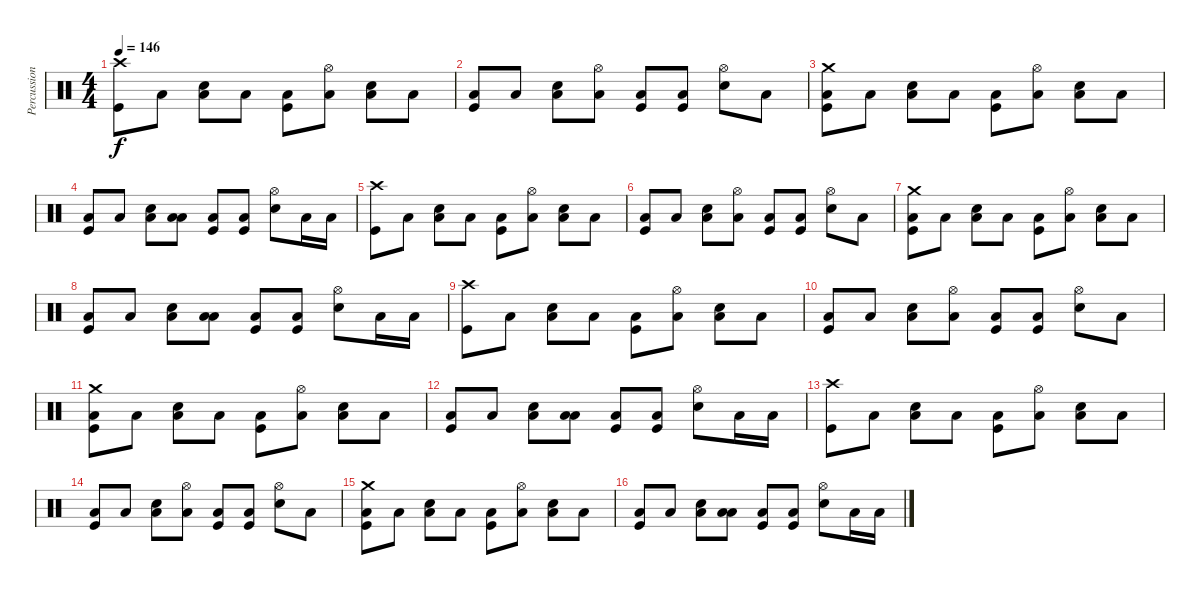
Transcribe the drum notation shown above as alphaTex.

\track ("Percussion" "Percussion") {instrument percussion}
\staff {score}
\articulation defaults
\ts (4 4)
\tempo 146
\clef neutral
\ks c
("Crash high (hit)" "Kick (hit)").8{dy f} "Low Floor Tom (hit)".8 ("Low Floor Tom (hit)" "Snare (hit) 2").8 "Low Floor Tom (hit)".8 ("Low Floor Tom (hit)" "Kick (hit)").8 ("Hi-Hat (open)" "Low Floor Tom (hit)").8 ("Low Floor Tom (hit)" "Snare (hit) 2").8 "Low Floor Tom (hit)".8 |
("Low Floor Tom (hit)" "Kick (hit)").8 "Low Floor Tom (hit)".8 ("Low Floor Tom (hit)" "Snare (hit) 2").8 ("Hi-Hat (open)" "Low Floor Tom (hit)").8 ("Low Floor Tom (hit)" "Kick (hit)").8 ("Low Floor Tom (hit)" "Kick (hit)").8 ("Hi-Hat (open)" "Snare (hit) 2").8 "Low Floor Tom (hit)".8 |
("Crash medium (hit)" "Low Floor Tom (hit)" "Kick (hit)").8 "Low Floor Tom (hit)".8 ("Low Floor Tom (hit)" "Snare (hit) 2").8 "Low Floor Tom (hit)".8 ("Low Floor Tom (hit)" "Kick (hit)").8 ("Hi-Hat (open)" "Low Floor Tom (hit)").8 ("Low Floor Tom (hit)" "Snare (hit) 2").8 "Low Floor Tom (hit)".8 |
("Low Floor Tom (hit)" "Kick (hit)").8 "Low Floor Tom (hit)".8 ("Low Floor Tom (hit)" "Snare (hit) 2").8 ("Low Tom (hit)" "Low Floor Tom (hit)").8 ("Low Floor Tom (hit)" "Kick (hit)").8 ("Low Floor Tom (hit)" "Kick (hit)").8 ("Hi-Hat (open)" "Snare (hit) 2").8 "Low Floor Tom (hit)".16 "Low Floor Tom (hit)".16 |
("Crash high (hit)" "Kick (hit)").8 "Low Floor Tom (hit)".8 ("Low Floor Tom (hit)" "Snare (hit) 2").8 "Low Floor Tom (hit)".8 ("Low Floor Tom (hit)" "Kick (hit)").8 ("Hi-Hat (open)" "Low Floor Tom (hit)").8 ("Low Floor Tom (hit)" "Snare (hit) 2").8 "Low Floor Tom (hit)".8 |
("Low Floor Tom (hit)" "Kick (hit)").8 "Low Floor Tom (hit)".8 ("Low Floor Tom (hit)" "Snare (hit) 2").8 ("Hi-Hat (open)" "Low Floor Tom (hit)").8 ("Low Floor Tom (hit)" "Kick (hit)").8 ("Low Floor Tom (hit)" "Kick (hit)").8 ("Hi-Hat (open)" "Snare (hit) 2").8 "Low Floor Tom (hit)".8 |
("Crash medium (hit)" "Low Floor Tom (hit)" "Kick (hit)").8 "Low Floor Tom (hit)".8 ("Low Floor Tom (hit)" "Snare (hit) 2").8 "Low Floor Tom (hit)".8 ("Low Floor Tom (hit)" "Kick (hit)").8 ("Hi-Hat (open)" "Low Floor Tom (hit)").8 ("Low Floor Tom (hit)" "Snare (hit) 2").8 "Low Floor Tom (hit)".8 |
("Low Floor Tom (hit)" "Kick (hit)").8 "Low Floor Tom (hit)".8 ("Low Floor Tom (hit)" "Snare (hit) 2").8 ("Low Tom (hit)" "Low Floor Tom (hit)").8 ("Low Floor Tom (hit)" "Kick (hit)").8 ("Low Floor Tom (hit)" "Kick (hit)").8 ("Hi-Hat (open)" "Snare (hit) 2").8 "Low Floor Tom (hit)".16 "Low Floor Tom (hit)".16 |
("Crash high (hit)" "Kick (hit)").8 "Low Floor Tom (hit)".8 ("Low Floor Tom (hit)" "Snare (hit) 2").8 "Low Floor Tom (hit)".8 ("Low Floor Tom (hit)" "Kick (hit)").8 ("Hi-Hat (open)" "Low Floor Tom (hit)").8 ("Low Floor Tom (hit)" "Snare (hit) 2").8 "Low Floor Tom (hit)".8 |
("Low Floor Tom (hit)" "Kick (hit)").8 "Low Floor Tom (hit)".8 ("Low Floor Tom (hit)" "Snare (hit) 2").8 ("Hi-Hat (open)" "Low Floor Tom (hit)").8 ("Low Floor Tom (hit)" "Kick (hit)").8 ("Low Floor Tom (hit)" "Kick (hit)").8 ("Hi-Hat (open)" "Snare (hit) 2").8 "Low Floor Tom (hit)".8 |
("Crash medium (hit)" "Low Floor Tom (hit)" "Kick (hit)").8 "Low Floor Tom (hit)".8 ("Low Floor Tom (hit)" "Snare (hit) 2").8 "Low Floor Tom (hit)".8 ("Low Floor Tom (hit)" "Kick (hit)").8 ("Hi-Hat (open)" "Low Floor Tom (hit)").8 ("Low Floor Tom (hit)" "Snare (hit) 2").8 "Low Floor Tom (hit)".8 |
("Low Floor Tom (hit)" "Kick (hit)").8 "Low Floor Tom (hit)".8 ("Low Floor Tom (hit)" "Snare (hit) 2").8 ("Low Tom (hit)" "Low Floor Tom (hit)").8 ("Low Floor Tom (hit)" "Kick (hit)").8 ("Low Floor Tom (hit)" "Kick (hit)").8 ("Hi-Hat (open)" "Snare (hit) 2").8 "Low Floor Tom (hit)".16 "Low Floor Tom (hit)".16 |
("Crash high (hit)" "Kick (hit)").8 "Low Floor Tom (hit)".8 ("Low Floor Tom (hit)" "Snare (hit) 2").8 "Low Floor Tom (hit)".8 ("Low Floor Tom (hit)" "Kick (hit)").8 ("Hi-Hat (open)" "Low Floor Tom (hit)").8 ("Low Floor Tom (hit)" "Snare (hit) 2").8 "Low Floor Tom (hit)".8 |
("Low Floor Tom (hit)" "Kick (hit)").8 "Low Floor Tom (hit)".8 ("Low Floor Tom (hit)" "Snare (hit) 2").8 ("Hi-Hat (open)" "Low Floor Tom (hit)").8 ("Low Floor Tom (hit)" "Kick (hit)").8 ("Low Floor Tom (hit)" "Kick (hit)").8 ("Hi-Hat (open)" "Snare (hit) 2").8 "Low Floor Tom (hit)".8 |
("Crash medium (hit)" "Low Floor Tom (hit)" "Kick (hit)").8 "Low Floor Tom (hit)".8 ("Low Floor Tom (hit)" "Snare (hit) 2").8 "Low Floor Tom (hit)".8 ("Low Floor Tom (hit)" "Kick (hit)").8 ("Hi-Hat (open)" "Low Floor Tom (hit)").8 ("Low Floor Tom (hit)" "Snare (hit) 2").8 "Low Floor Tom (hit)".8 |
("Low Floor Tom (hit)" "Kick (hit)").8 "Low Floor Tom (hit)".8 ("Low Floor Tom (hit)" "Snare (hit) 2").8 ("Low Tom (hit)" "Low Floor Tom (hit)").8 ("Low Floor Tom (hit)" "Kick (hit)").8 ("Low Floor Tom (hit)" "Kick (hit)").8 ("Hi-Hat (open)" "Snare (hit) 2").8 "Low Floor Tom (hit)".16 "Low Floor Tom (hit)".16
